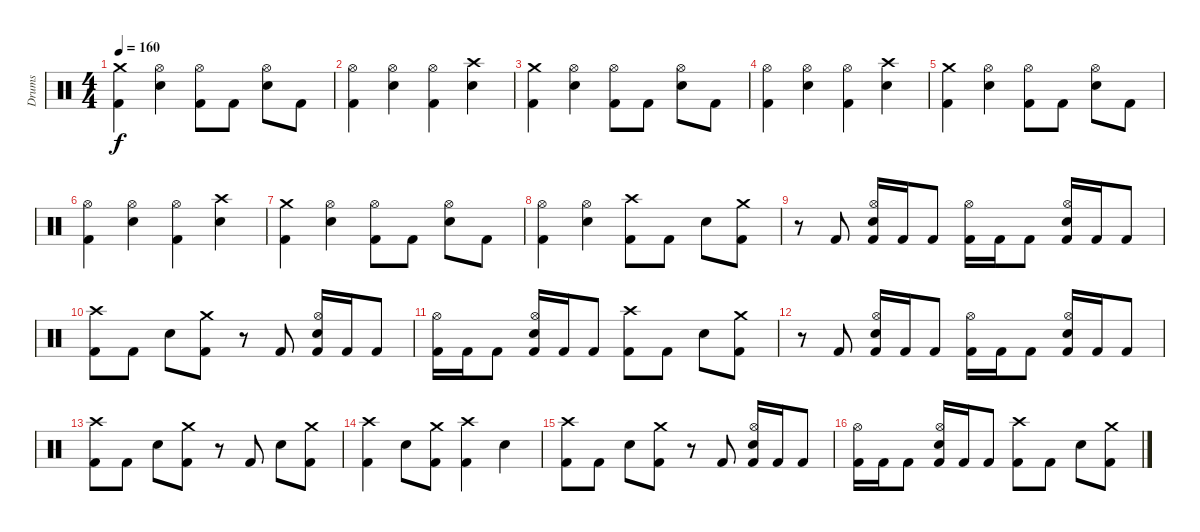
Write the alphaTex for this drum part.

\track ("Drums" "Drums") {instrument percussion}
\staff {score}
\articulation defaults
\ts (4 4)
\tempo 160
\clef neutral
\ks c
("Crash medium (hit)" "Kick (hit) 2").4{dy f} ("Hi-Hat (open)" "Electric Snare (hit)").4 ("Hi-Hat (open)" "Kick (hit) 2").8 "Kick (hit) 2".8 ("Hi-Hat (open)" "Electric Snare (hit)").8 "Kick (hit) 2".8 |
("Hi-Hat (open)" "Kick (hit) 2").4 ("Hi-Hat (open)" "Electric Snare (hit)").4 ("Hi-Hat (open)" "Kick (hit) 2").4 ("Crash high (hit)" "Electric Snare (hit)").4 |
("Crash medium (hit)" "Kick (hit) 2").4 ("Hi-Hat (open)" "Electric Snare (hit)").4 ("Hi-Hat (open)" "Kick (hit) 2").8 "Kick (hit) 2".8 ("Hi-Hat (open)" "Electric Snare (hit)").8 "Kick (hit) 2".8 |
("Hi-Hat (open)" "Kick (hit) 2").4 ("Hi-Hat (open)" "Electric Snare (hit)").4 ("Hi-Hat (open)" "Kick (hit) 2").4 ("Crash high (hit)" "Electric Snare (hit)").4 |
("Crash medium (hit)" "Kick (hit) 2").4 ("Hi-Hat (open)" "Electric Snare (hit)").4 ("Hi-Hat (open)" "Kick (hit) 2").8 "Kick (hit) 2".8 ("Hi-Hat (open)" "Electric Snare (hit)").8 "Kick (hit) 2".8 |
("Hi-Hat (open)" "Kick (hit) 2").4 ("Hi-Hat (open)" "Electric Snare (hit)").4 ("Hi-Hat (open)" "Kick (hit) 2").4 ("Crash high (hit)" "Electric Snare (hit)").4 |
("Crash medium (hit)" "Kick (hit) 2").4 ("Hi-Hat (open)" "Electric Snare (hit)").4 ("Hi-Hat (open)" "Kick (hit) 2").8 "Kick (hit) 2".8 ("Hi-Hat (open)" "Electric Snare (hit)").8 "Kick (hit) 2".8 |
("Hi-Hat (open)" "Kick (hit) 2").4 ("Hi-Hat (open)" "Electric Snare (hit)").4 ("Crash high (hit)" "Kick (hit) 2").8 "Kick (hit) 2".8 "Electric Snare (hit)".8 ("Crash medium (hit)" "Kick (hit) 2").8 |
r.8 "Kick (hit) 2".8 ("Hi-Hat (open)" "Electric Snare (hit)" "Kick (hit) 2").16 "Kick (hit) 2".16 "Kick (hit) 2".8 ("Hi-Hat (open)" "Kick (hit) 2").16 "Kick (hit) 2".16 "Kick (hit) 2".8 ("Hi-Hat (open)" "Electric Snare (hit)" "Kick (hit) 2").16 "Kick (hit) 2".16 "Kick (hit) 2".8 |
("Crash high (hit)" "Kick (hit) 2").8 "Kick (hit) 2".8 "Electric Snare (hit)".8 ("Crash medium (hit)" "Kick (hit) 2").8 r.8 "Kick (hit) 2".8 ("Hi-Hat (open)" "Electric Snare (hit)" "Kick (hit) 2").16 "Kick (hit) 2".16 "Kick (hit) 2".8 |
("Hi-Hat (open)" "Kick (hit) 2").16 "Kick (hit) 2".16 "Kick (hit) 2".8 ("Hi-Hat (open)" "Electric Snare (hit)" "Kick (hit) 2").16 "Kick (hit) 2".16 "Kick (hit) 2".8 ("Crash high (hit)" "Kick (hit) 2").8 "Kick (hit) 2".8 "Electric Snare (hit)".8 ("Crash medium (hit)" "Kick (hit) 2").8 |
r.8 "Kick (hit) 2".8 ("Hi-Hat (open)" "Electric Snare (hit)" "Kick (hit) 2").16 "Kick (hit) 2".16 "Kick (hit) 2".8 ("Hi-Hat (open)" "Kick (hit) 2").16 "Kick (hit) 2".16 "Kick (hit) 2".8 ("Hi-Hat (open)" "Electric Snare (hit)" "Kick (hit) 2").16 "Kick (hit) 2".16 "Kick (hit) 2".8 |
("Crash high (hit)" "Kick (hit) 2").8 "Kick (hit) 2".8 "Electric Snare (hit)".8 ("Crash medium (hit)" "Kick (hit) 2").8 r.8 "Kick (hit) 2".8 "Electric Snare (hit)".8 ("Crash medium (hit)" "Kick (hit) 2").8 |
("Crash high (hit)" "Kick (hit) 2").4 "Electric Snare (hit)".8 ("Crash medium (hit)" "Kick (hit) 2").8 ("Crash high (hit)" "Kick (hit) 2").4 "Electric Snare (hit)".4 |
("Crash high (hit)" "Kick (hit) 2").8 "Kick (hit) 2".8 "Electric Snare (hit)".8 ("Crash medium (hit)" "Kick (hit) 2").8 r.8 "Kick (hit) 2".8 ("Hi-Hat (open)" "Electric Snare (hit)" "Kick (hit) 2").16 "Kick (hit) 2".16 "Kick (hit) 2".8 |
("Hi-Hat (open)" "Kick (hit) 2").16 "Kick (hit) 2".16 "Kick (hit) 2".8 ("Hi-Hat (open)" "Electric Snare (hit)" "Kick (hit) 2").16 "Kick (hit) 2".16 "Kick (hit) 2".8 ("Crash high (hit)" "Kick (hit) 2").8 "Kick (hit) 2".8 "Electric Snare (hit)".8 ("Crash medium (hit)" "Kick (hit) 2").8
